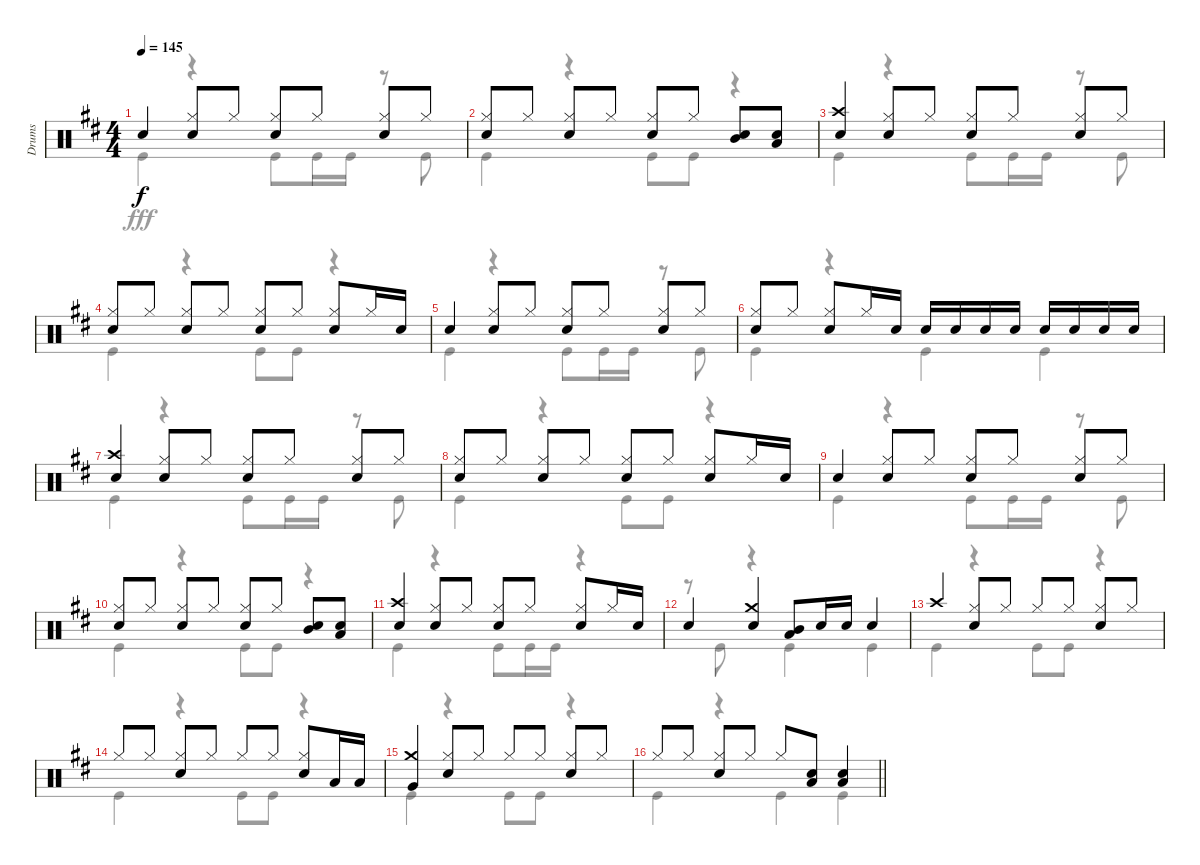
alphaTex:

\track ("Drums" "Drums") {instrument percussion}
\staff {score}
\articulation defaults
\voice
\ts (4 4)
\tempo 145
\clef neutral
\ks d "Snare (hit) 2".4{dy f}
("Hi-Hat (closed)" "Snare (hit) 2").8 "Hi-Hat (closed)".8 ("Hi-Hat (closed)" "Snare (hit) 2").8 "Hi-Hat (closed)".8 ("Hi-Hat (closed)" "Snare (hit) 2").8 "Hi-Hat (closed)".8 |
("Hi-Hat (closed)" "Snare (hit) 2").8 "Hi-Hat (closed)".8 ("Hi-Hat (closed)" "Snare (hit) 2").8 "Hi-Hat (closed)".8 ("Hi-Hat (closed)" "Snare (hit) 2").8 "Hi-Hat (closed)".8 ("Mid Tom (hit)" "Snare (hit) 2").8 ("Low Tom (hit)" "Snare (hit) 2").8 |
("Crash high (hit)" "Snare (hit) 2").4 ("Hi-Hat (closed)" "Snare (hit) 2").8 "Hi-Hat (closed)".8 ("Hi-Hat (closed)" "Snare (hit) 2").8 "Hi-Hat (closed)".8 ("Hi-Hat (closed)" "Snare (hit) 2").8 "Hi-Hat (closed)".8 |
("Hi-Hat (closed)" "Snare (hit) 2").8 "Hi-Hat (closed)".8 ("Hi-Hat (closed)" "Snare (hit) 2").8 "Hi-Hat (closed)".8 ("Hi-Hat (closed)" "Snare (hit) 2").8 "Hi-Hat (closed)".8 ("Hi-Hat (closed)" "Snare (hit) 2").8 "Hi-Hat (closed)".16 "Snare (hit) 2".16 |
"Snare (hit) 2".4 ("Hi-Hat (closed)" "Snare (hit) 2").8 "Hi-Hat (closed)".8 ("Hi-Hat (closed)" "Snare (hit) 2").8 "Hi-Hat (closed)".8 ("Hi-Hat (closed)" "Snare (hit) 2").8 "Hi-Hat (closed)".8 |
("Hi-Hat (closed)" "Snare (hit) 2").8 "Hi-Hat (closed)".8 ("Hi-Hat (closed)" "Snare (hit) 2").8 "Hi-Hat (closed)".16 "Snare (hit) 2".16 "Snare (hit) 2".16 "Snare (hit) 2".16 "Snare (hit) 2".16 "Snare (hit) 2".16 "Snare (hit) 2".16 "Snare (hit) 2".16 "Snare (hit) 2".16 "Snare (hit) 2".16 |
("Crash high (hit)" "Snare (hit) 2").4 ("Hi-Hat (closed)" "Snare (hit) 2").8 "Hi-Hat (closed)".8 ("Hi-Hat (closed)" "Snare (hit) 2").8 "Hi-Hat (closed)".8 ("Hi-Hat (closed)" "Snare (hit) 2").8 "Hi-Hat (closed)".8 |
("Hi-Hat (closed)" "Snare (hit) 2").8 "Hi-Hat (closed)".8 ("Hi-Hat (closed)" "Snare (hit) 2").8 "Hi-Hat (closed)".8 ("Hi-Hat (closed)" "Snare (hit) 2").8 "Hi-Hat (closed)".8 ("Hi-Hat (closed)" "Snare (hit) 2").8 "Hi-Hat (closed)".16 "Snare (hit) 2".16 |
"Snare (hit) 2".4 ("Hi-Hat (closed)" "Snare (hit) 2").8 "Hi-Hat (closed)".8 ("Hi-Hat (closed)" "Snare (hit) 2").8 "Hi-Hat (closed)".8 ("Hi-Hat (closed)" "Snare (hit) 2").8 "Hi-Hat (closed)".8 |
("Hi-Hat (closed)" "Snare (hit) 2").8 "Hi-Hat (closed)".8 ("Hi-Hat (closed)" "Snare (hit) 2").8 "Hi-Hat (closed)".8 ("Hi-Hat (closed)" "Snare (hit) 2").8 "Hi-Hat (closed)".8 ("Snare (hit) 2" "Mid Tom (hit)").8 ("Snare (hit) 2" "Low Tom (hit)").8 |
("Crash high (hit)" "Snare (hit) 2").4 ("Hi-Hat (closed)" "Snare (hit) 2").8 "Hi-Hat (closed)".8 ("Hi-Hat (closed)" "Snare (hit) 2").8 "Hi-Hat (closed)".8 ("Hi-Hat (closed)" "Snare (hit) 2").8 "Hi-Hat (closed)".16 "Snare (hit) 2".16 |
"Snare (hit) 2".4 ("Crash medium (hit)" "Snare (hit) 2").4 ("Mid Tom (hit)" "Low Tom (hit)").8 "Snare (hit) 2".16 "Snare (hit) 2".16 "Snare (hit) 2".4 |
"Crash high (hit)".4 ("Hi-Hat (closed)" "Snare (hit) 2").8 "Hi-Hat (closed)".8 "Hi-Hat (closed)".8 "Hi-Hat (closed)".8 ("Hi-Hat (closed)" "Snare (hit) 2").8 "Hi-Hat (closed)".8 |
"Hi-Hat (closed)".8 "Hi-Hat (closed)".8 ("Hi-Hat (closed)" "Snare (hit) 2").8 "Hi-Hat (closed)".8 "Hi-Hat (closed)".8 "Hi-Hat (closed)".8 ("Hi-Hat (closed)" "Snare (hit) 2").8 "Low Tom (hit)".16 "Low Tom (hit)".16 |
("Crash medium (hit)" "Very Low Tom (hit)").4 ("Hi-Hat (closed)" "Snare (hit) 2").8 "Hi-Hat (closed)".8 "Hi-Hat (closed)".8 "Hi-Hat (closed)".8 ("Hi-Hat (closed)" "Snare (hit) 2").8 "Hi-Hat (closed)".8 |
\barLineRight lightlight "Hi-Hat (closed)".8 "Hi-Hat (closed)".8
("Hi-Hat (closed)" "Snare (hit) 2").8 "Hi-Hat (closed)".8 "Hi-Hat (closed)".8 ("Snare (hit) 2" "Low Tom (hit)").8 ("Snare (hit) 2" "Low Tom (hit)").4
\voice
\clef neutral
\ottava regular
\simile none
\ks d "Kick (hit)".4{dy fff}
r.4 "Kick (hit)".8 "Kick (hit)".16 "Kick (hit)".16 r.8 "Kick (hit)".8 |
"Kick (hit)".4 r.4 "Kick (hit)".8 "Kick (hit)".8 r.4 |
"Kick (hit)".4 r.4 "Kick (hit)".8 "Kick (hit)".16 "Kick (hit)".16 r.8 "Kick (hit)".8 |
"Kick (hit)".4 r.4 "Kick (hit)".8 "Kick (hit)".8 r.4 |
"Kick (hit)".4 r.4 "Kick (hit)".8 "Kick (hit)".16 "Kick (hit)".16 r.8 "Kick (hit)".8 |
"Kick (hit)".4 r.4 "Kick (hit)".4 "Kick (hit)".4 |
"Kick (hit)".4 r.4 "Kick (hit)".8 "Kick (hit)".16 "Kick (hit)".16 r.8 "Kick (hit)".8 |
"Kick (hit)".4 r.4 "Kick (hit)".8 "Kick (hit)".8 r.4 |
"Kick (hit)".4 r.4 "Kick (hit)".8 "Kick (hit)".16 "Kick (hit)".16 r.8 "Kick (hit)".8 |
"Kick (hit)".4 r.4 "Kick (hit)".8 "Kick (hit)".8 r.4 |
"Kick (hit)".4 r.4 "Kick (hit)".8 "Kick (hit)".16 "Kick (hit)".16 r.4 |
r.8 "Kick (hit)".8 r.4 "Kick (hit)".4 "Kick (hit)".4 |
"Kick (hit)".4 r.4 "Kick (hit)".8 "Kick (hit)".8 r.4 |
"Kick (hit)".4 r.4 "Kick (hit)".8 "Kick (hit)".8 r.4 |
"Kick (hit)".4 r.4 "Kick (hit)".8 "Kick (hit)".8 r.4 |
\barLineRight lightlight "Kick (hit)".4
r.4 "Kick (hit)".4 "Kick (hit)".4
